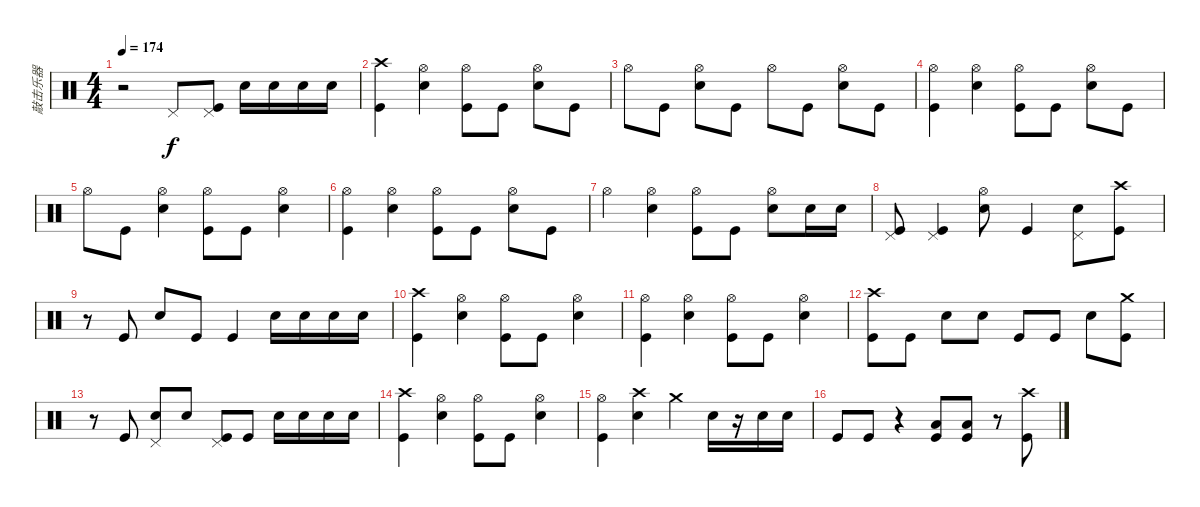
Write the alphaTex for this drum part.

\track ("敲击乐器" "敲击乐器") {instrument percussion}
\staff {score}
\articulation defaults
\ts (4 4)
\tempo 174
\clef neutral
\ks c
r.2{dy f} "Pedal Hi-Hat (hit)".8 ("Kick (hit)" "Pedal Hi-Hat (hit)").8 "Electric Snare (hit)".16 "Electric Snare (hit)".16 "Electric Snare (hit)".16 "Electric Snare (hit)".16 |
("Kick (hit)" "Crash high (hit)").4 ("Hi-Hat (open)" "Electric Snare (hit)").4 ("Hi-Hat (open)" "Kick (hit)").8 "Kick (hit)".8 ("Hi-Hat (open)" "Electric Snare (hit)").8 "Kick (hit)".8 |
"Hi-Hat (open)".8 "Kick (hit)".8 ("Hi-Hat (open)" "Electric Snare (hit)").8 "Kick (hit)".8 "Hi-Hat (open)".8 "Kick (hit)".8 ("Electric Snare (hit)" "Hi-Hat (open)").8 "Kick (hit)".8 |
("Kick (hit)" "Hi-Hat (open)").4 ("Hi-Hat (open)" "Electric Snare (hit)").4 ("Hi-Hat (open)" "Kick (hit)").8 "Kick (hit)".8 ("Hi-Hat (open)" "Electric Snare (hit)").8 "Kick (hit)".8 |
"Hi-Hat (open)".8 "Kick (hit)".8 ("Hi-Hat (open)" "Electric Snare (hit)").4 ("Hi-Hat (open)" "Kick (hit)").8 "Kick (hit)".8 ("Hi-Hat (open)" "Electric Snare (hit)").4 |
("Kick (hit)" "Hi-Hat (open)").4 ("Hi-Hat (open)" "Electric Snare (hit)").4 ("Hi-Hat (open)" "Kick (hit)").8 "Kick (hit)".8 ("Hi-Hat (open)" "Electric Snare (hit)").8 "Kick (hit)".8 |
"Hi-Hat (open)".4 ("Hi-Hat (open)" "Electric Snare (hit)").4 ("Hi-Hat (open)" "Kick (hit)").8 "Kick (hit)".8 ("Hi-Hat (open)" "Electric Snare (hit)").8 "Electric Snare (hit)".16 "Electric Snare (hit)".16 |
("Kick (hit)" "Pedal Hi-Hat (hit)").8 ("Kick (hit)" "Pedal Hi-Hat (hit)").4 ("Electric Snare (hit)" "Hi-Hat (open)").8 "Kick (hit)".4 ("Electric Snare (hit)" "Pedal Hi-Hat (hit)").8 ("Kick (hit)" "Crash high (hit)").8 |
r.8 "Kick (hit)".8 "Electric Snare (hit)".8 "Kick (hit)".8 "Kick (hit)".4 "Electric Snare (hit)".16 "Electric Snare (hit)".16 "Electric Snare (hit)".16 "Electric Snare (hit)".16 |
("Crash high (hit)" "Kick (hit)").4 ("Electric Snare (hit)" "Hi-Hat (open)").4 ("Hi-Hat (open)" "Kick (hit)").8 "Kick (hit)".8 ("Hi-Hat (open)" "Electric Snare (hit)").4 |
("Kick (hit)" "Hi-Hat (open)").4 ("Electric Snare (hit)" "Hi-Hat (open)").4 ("Hi-Hat (open)" "Kick (hit)").8 "Kick (hit)".8 ("Hi-Hat (open)" "Electric Snare (hit)").4 |
("Crash high (hit)" "Kick (hit)").8 "Kick (hit)".8 "Snare (hit) 2".8 "Snare (hit) 2".8 "Kick (hit)".8 "Kick (hit)".8 "Snare (hit) 2".8 ("Kick (hit)" "Crash medium (hit)").8 |
r.8 "Kick (hit)".8 ("Snare (hit) 2" "Pedal Hi-Hat (hit)").8 "Snare (hit) 2".8 ("Kick (hit)" "Pedal Hi-Hat (hit)").8 "Kick (hit)".8 "Snare (hit) 2".16 "Snare (hit) 2".16 "Snare (hit) 2".16 "Snare (hit) 2".16 |
("Crash high (hit)" "Kick (hit)").4 ("Electric Snare (hit)" "Hi-Hat (open)").4 ("Hi-Hat (open)" "Kick (hit)").8 "Kick (hit)".8 ("Hi-Hat (open)" "Electric Snare (hit)").4 |
("Hi-Hat (open)" "Kick (hit)").4 ("Crash high (hit)" "Snare (hit) 2").4 "Crash medium (hit)".4 "Snare (hit) 2".16 r.16 "Snare (hit) 2".16 "Snare (hit) 2".16 |
"Kick (hit)".8 "Kick (hit)".8 r.4 ("Low Floor Tom (hit)" "Kick (hit)").8 ("Low Floor Tom (hit)" "Kick (hit)").8 r.8 ("Crash high (hit)" "Kick (hit)").8
